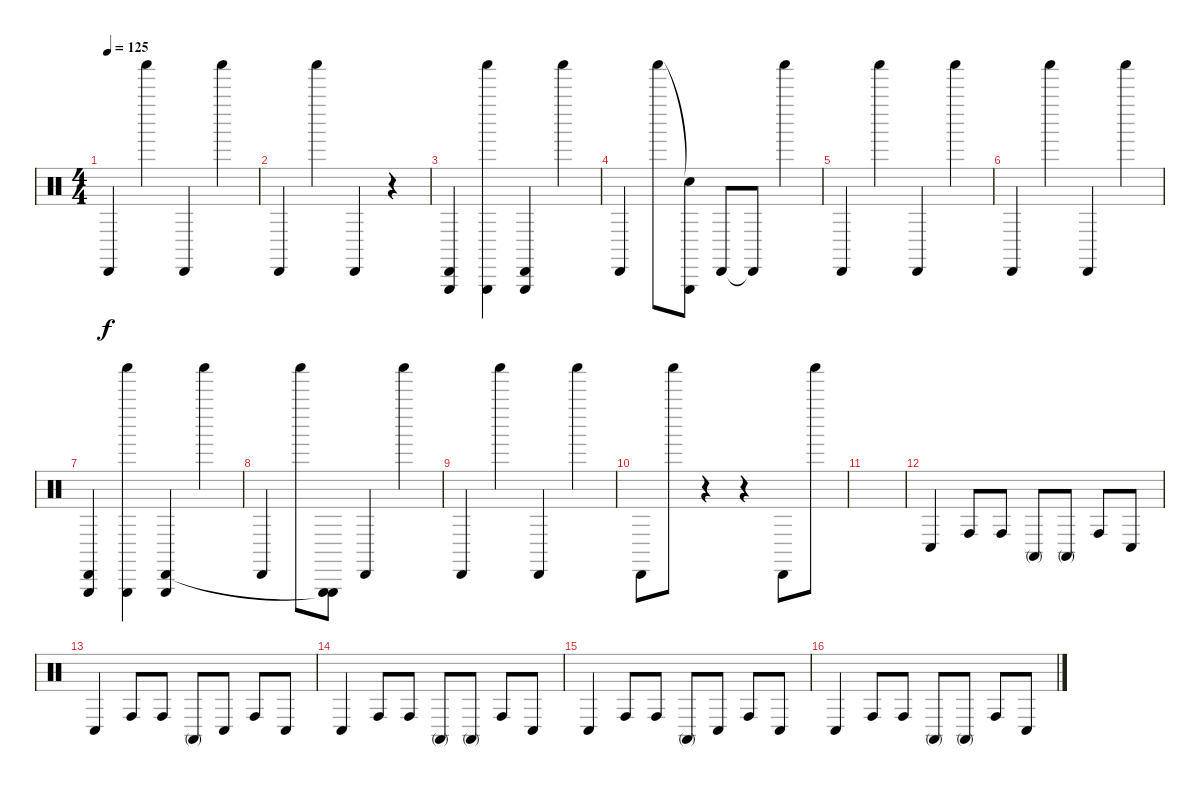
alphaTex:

\track "" {instrument percussion}
\staff {score}
\articulation defaults
\ts (4 4)
\tempo 125
\clef neutral
\ks c "Cabasa (hit)".4{dy f} "Shaker (hit)".4 "Cabasa (hit)".4 "Shaker (hit)".4
|
"Cabasa (hit)".4 "Shaker (hit)".4 "Cabasa (hit)".4 r.4 |
("Triangle (hit)" "Cabasa (hit)").4 ("Triangle (hit)" "Shaker (hit)").4 ("Triangle (hit)" "Cabasa (hit)").4 "Shaker (hit)".4 |
"Cabasa (hit)".4 "Shaker (hit)".8 ("Snare (hit)"{t} "Triangle (hit)").8 "Cabasa (hit)".8 "Cabasa (hit)"{t}.8 "Shaker (hit)".4 |
"Cabasa (hit)".4 "Shaker (hit)".4 "Cabasa (hit)".4 "Shaker (hit)".4 |
"Cabasa (hit)".4 "Shaker (hit)".4 "Cabasa (hit)".4 "Shaker (hit)".4 |
("Triangle (hit)" "Cabasa (hit)").4 ("Triangle (hit)" "Shaker (hit)").4 ("Triangle (hit)" "Cabasa (hit)").4 "Shaker (hit)".4 |
"Cabasa (hit)".4 "Shaker (hit)".8 ("Triangle (hit)" "Triangle (hit)"{t}).8 "Cabasa (hit)".4 "Shaker (hit)".4 |
"Cabasa (hit)".4 "Shaker (hit)".4 "Cabasa (hit)".4 "Shaker (hit)".4 |
"Cabasa (hit)".8 "Shaker (hit)".8 r.4 r.4 "Cabasa (hit)".8 "Shaker (hit)".8 |
|
"Conga low (hit)".4 "Conga high (hit)".8 "Conga high (hit)".8 "Conga high (mute)".8 "Conga high (mute)".8 "Conga high (hit)".8 "Conga low (hit)".8 |
"Conga low (hit)".4 "Conga high (hit)".8 "Conga high (hit)".8 "Conga high (mute)".8 "Conga low (hit)".8 "Conga high (hit)".8 "Conga low (hit)".8 |
"Conga low (hit)".4 "Conga high (hit)".8 "Conga high (hit)".8 "Conga high (mute)".8 "Conga high (mute)".8 "Conga high (hit)".8 "Conga low (hit)".8 |
"Conga low (hit)".4 "Conga high (hit)".8 "Conga high (hit)".8 "Conga high (mute)".8 "Conga low (hit)".8 "Conga high (hit)".8 "Conga low (hit)".8 |
"Conga low (hit)".4 "Conga high (hit)".8 "Conga high (hit)".8 "Conga high (mute)".8 "Conga high (mute)".8 "Conga high (hit)".8 "Conga low (hit)".8
